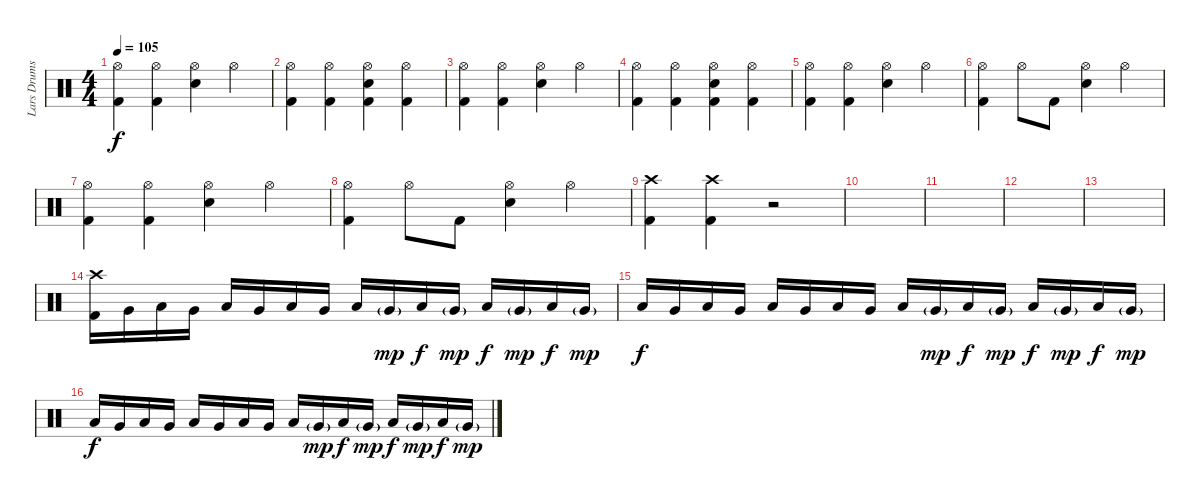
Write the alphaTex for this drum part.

\track ("Lars Drums" "Lars Drums") {instrument percussion}
\staff {score}
\articulation defaults
\ts (4 4)
\tempo 105
\clef neutral
\ks c
("Hi-Hat (open)" "Kick (hit) 2").4{dy f} ("Hi-Hat (open)" "Kick (hit) 2").4 ("Hi-Hat (open)" "Snare (hit) 2").4 "Hi-Hat (open)".4 |
("Hi-Hat (open)" "Kick (hit) 2").4 ("Hi-Hat (open)" "Kick (hit) 2").4 ("Hi-Hat (open)" "Kick (hit) 2" "Snare (hit) 2").4 ("Hi-Hat (open)" "Kick (hit) 2").4 |
("Hi-Hat (open)" "Kick (hit) 2").4 ("Hi-Hat (open)" "Kick (hit) 2").4 ("Hi-Hat (open)" "Snare (hit) 2").4 "Hi-Hat (open)".4 |
("Hi-Hat (open)" "Kick (hit) 2").4 ("Hi-Hat (open)" "Kick (hit) 2").4 ("Hi-Hat (open)" "Kick (hit) 2" "Snare (hit) 2").4 ("Hi-Hat (open)" "Kick (hit) 2").4 |
("Hi-Hat (open)" "Kick (hit) 2").4 ("Hi-Hat (open)" "Kick (hit) 2").4 ("Hi-Hat (open)" "Snare (hit) 2").4 "Hi-Hat (open)".4 |
("Hi-Hat (open)" "Kick (hit) 2").4 "Hi-Hat (open)".8 "Kick (hit) 2".8 ("Hi-Hat (open)" "Snare (hit) 2").4 "Hi-Hat (open)".4 |
("Hi-Hat (open)" "Kick (hit) 2").4 ("Hi-Hat (open)" "Kick (hit) 2").4 ("Hi-Hat (open)" "Snare (hit) 2").4 "Hi-Hat (open)".4 |
("Hi-Hat (open)" "Kick (hit) 2").4 "Hi-Hat (open)".8 "Kick (hit) 2".8 ("Hi-Hat (open)" "Snare (hit) 2").4 "Hi-Hat (open)".4 |
("Crash high (hit)" "Kick (hit) 2").4 ("Crash high (hit)" "Kick (hit) 2").4 r.2 |
|
|
|
|
("Crash high (hit)" "Kick (hit) 2").16 "Very Low Tom (hit)".16 "Low Floor Tom (hit)".16 "Very Low Tom (hit)".16 "Low Floor Tom (hit)".16 "Very Low Tom (hit)".16 "Low Floor Tom (hit)".16 "Very Low Tom (hit)".16 "Low Floor Tom (hit)".16 "Very Low Tom (hit)"{g}.16{dy mp} "Low Floor Tom (hit)".16{dy f} "Very Low Tom (hit)"{g}.16{dy mp} "Low Floor Tom (hit)".16{dy f} "Very Low Tom (hit)"{g}.16{dy mp} "Low Floor Tom (hit)".16{dy f} "Very Low Tom (hit)"{g}.16{dy mp} |
"Low Floor Tom (hit)".16{dy f} "Very Low Tom (hit)".16 "Low Floor Tom (hit)".16 "Very Low Tom (hit)".16 "Low Floor Tom (hit)".16 "Very Low Tom (hit)".16 "Low Floor Tom (hit)".16 "Very Low Tom (hit)".16 "Low Floor Tom (hit)".16 "Very Low Tom (hit)"{g}.16{dy mp} "Low Floor Tom (hit)".16{dy f} "Very Low Tom (hit)"{g}.16{dy mp} "Low Floor Tom (hit)".16{dy f} "Very Low Tom (hit)"{g}.16{dy mp} "Low Floor Tom (hit)".16{dy f} "Very Low Tom (hit)"{g}.16{dy mp} |
"Low Floor Tom (hit)".16{dy f} "Very Low Tom (hit)".16 "Low Floor Tom (hit)".16 "Very Low Tom (hit)".16 "Low Floor Tom (hit)".16 "Very Low Tom (hit)".16 "Low Floor Tom (hit)".16 "Very Low Tom (hit)".16 "Low Floor Tom (hit)".16 "Very Low Tom (hit)"{g}.16{dy mp} "Low Floor Tom (hit)".16{dy f} "Very Low Tom (hit)"{g}.16{dy mp} "Low Floor Tom (hit)".16{dy f} "Very Low Tom (hit)"{g}.16{dy mp} "Low Floor Tom (hit)".16{dy f} "Very Low Tom (hit)"{g}.16{dy mp}
